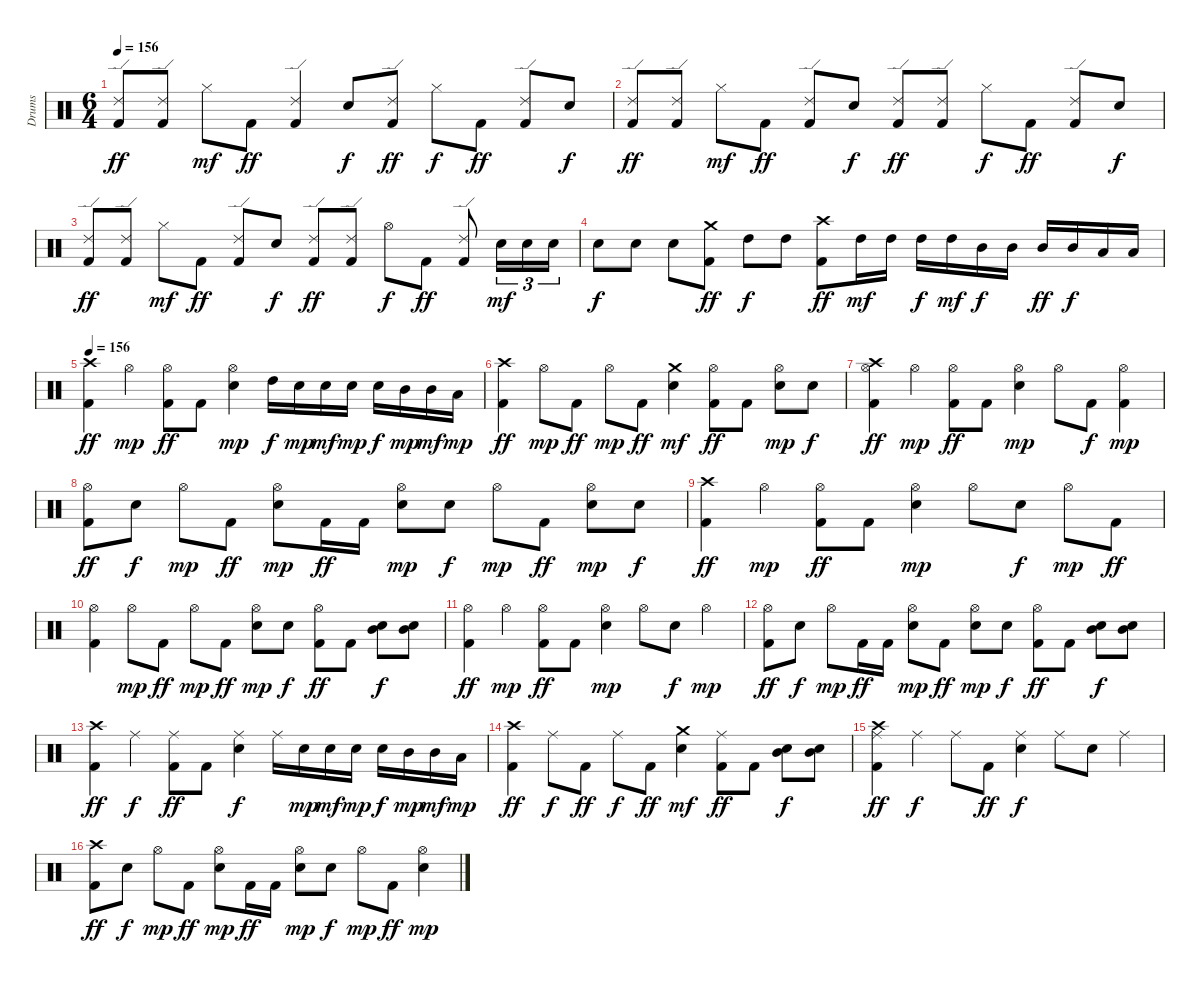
\track ("Drums" "Drums") {instrument percussion}
\staff {score}
\articulation defaults
\ts (6 4)
\tempo 156
\clef neutral
\ks c
("Ride (edge) 2" "Kick (hit) 2").8{dy ff} ("Ride (edge) 2" "Kick (hit) 2").8 "Hi-Hat (closed)".8{dy mf} "Kick (hit) 2".8{dy ff} ("Ride (edge) 2" "Kick (hit) 2").4 "Electric Snare (hit)".8{dy f} ("Ride (edge) 2" "Kick (hit) 2").8{dy ff} "Hi-Hat (closed)".8{dy f} "Kick (hit) 2".8{dy ff} ("Ride (edge) 2" "Kick (hit) 2").8 "Electric Snare (hit)".8{dy f} |
("Ride (edge) 2" "Kick (hit) 2").8{dy ff} ("Ride (edge) 2" "Kick (hit) 2").8 "Hi-Hat (closed)".8{dy mf} "Kick (hit) 2".8{dy ff} ("Ride (edge) 2" "Kick (hit) 2").8 "Electric Snare (hit)".8{dy f} ("Ride (edge) 2" "Kick (hit) 2").8{dy ff} ("Ride (edge) 2" "Kick (hit) 2").8 "Hi-Hat (closed)".8{dy f} "Kick (hit) 2".8{dy ff} ("Ride (edge) 2" "Kick (hit) 2").8 "Electric Snare (hit)".8{dy f} |
("Ride (edge) 2" "Kick (hit) 2").8{dy ff} ("Ride (edge) 2" "Kick (hit) 2").8 "Hi-Hat (closed)".8{dy mf} "Kick (hit) 2".8{dy ff} ("Ride (edge) 2" "Kick (hit) 2").8 "Electric Snare (hit)".8{dy f} ("Ride (edge) 2" "Kick (hit) 2").8{dy ff} ("Ride (edge) 2" "Kick (hit) 2").8 "Hi-Hat (open)".8{dy f} "Kick (hit) 2".8{dy ff} ("Ride (edge) 2" "Kick (hit) 2").8 "Electric Snare (hit)".16{tu (3 2) dy mf} "Electric Snare (hit)".16{tu (3 2)} "Electric Snare (hit)".16{tu (3 2)} |
"Electric Snare (hit)".8{dy f} "Electric Snare (hit)".8 "Electric Snare (hit)".8 ("Crash medium (hit)" "Kick (hit) 2").8{dy ff} "High Tom (hit)".8{dy f} "High Tom (hit)".8 ("Crash high (hit)" "Kick (hit) 2").8{dy ff} "High Tom (hit)".16{dy mf} "High Tom (hit)".16 "High Tom (hit)".16{dy f} "High Tom (hit)".16{dy mf} "Mid Tom (hit)".16{dy f} "Mid Tom (hit)".16 "Mid Tom (hit)".16{dy ff} "Mid Tom (hit)".16{dy f} "Low Tom (hit)".16 "Low Tom (hit)".16 |
\tempo 156
("Crash high (hit)" "Kick (hit) 2").4{dy ff} "Hi-Hat (open)".4{dy mp} ("Hi-Hat (open)" "Kick (hit) 2").8{dy ff} "Kick (hit) 2".8 ("Hi-Hat (open)" "Electric Snare (hit)").4{dy mp} "High Tom (hit)".16{dy f} "Electric Snare (hit)".16{dy mp} "Electric Snare (hit)".16{dy mf} "Electric Snare (hit)".16{dy mp} "Electric Snare (hit)".16{dy f} "Mid Tom (hit)".16{dy mp} "Mid Tom (hit)".16{dy mf} "Low Tom (hit)".16{dy mp} |
("Crash high (hit)" "Kick (hit) 2").4{dy ff} "Hi-Hat (open)".8{dy mp} "Kick (hit) 2".8{dy ff} "Hi-Hat (open)".8{dy mp} "Kick (hit) 2".8{dy ff} ("Crash medium (hit)" "Electric Snare (hit)").4{dy mf} ("Hi-Hat (open)" "Kick (hit) 2").8{dy ff} "Kick (hit) 2".8 ("Hi-Hat (open)" "Electric Snare (hit)").8{dy mp} "Electric Snare (hit)".8{dy f} |
("Crash high (hit)" "Hi-Hat (open)" "Kick (hit) 2").4{dy ff} "Hi-Hat (open)".4{dy mp} ("Hi-Hat (open)" "Kick (hit) 2").8{dy ff} "Kick (hit) 2".8 ("Hi-Hat (open)" "Electric Snare (hit)").4{dy mp} "Hi-Hat (open)".8 "Kick (hit) 2".8{dy f} ("Hi-Hat (open)" "Kick (hit) 2").4{dy mp} |
("Hi-Hat (open)" "Kick (hit) 2").8{dy ff} "Electric Snare (hit)".8{dy f} "Hi-Hat (open)".8{dy mp} "Kick (hit) 2".8{dy ff} ("Hi-Hat (open)" "Electric Snare (hit)").8{dy mp} "Kick (hit) 2".16{dy ff} "Kick (hit) 2".16 ("Hi-Hat (open)" "Electric Snare (hit)").8{dy mp} "Electric Snare (hit)".8{dy f} "Hi-Hat (open)".8{dy mp} "Kick (hit) 2".8{dy ff} ("Hi-Hat (open)" "Electric Snare (hit)").8{dy mp} "Electric Snare (hit)".8{dy f} |
("Crash high (hit)" "Kick (hit) 2").4{dy ff} "Hi-Hat (open)".4{dy mp} ("Hi-Hat (open)" "Kick (hit) 2").8{dy ff} "Kick (hit) 2".8 ("Hi-Hat (open)" "Electric Snare (hit)").4{dy mp} "Hi-Hat (open)".8 "Electric Snare (hit)".8{dy f} "Hi-Hat (open)".8{dy mp} "Kick (hit) 2".8{dy ff} |
("Hi-Hat (open)" "Kick (hit) 2").4 "Hi-Hat (open)".8{dy mp} "Kick (hit) 2".8{dy ff} "Hi-Hat (open)".8{dy mp} "Kick (hit) 2".8{dy ff} ("Hi-Hat (open)" "Electric Snare (hit)").8{dy mp} "Electric Snare (hit)".8{dy f} ("Hi-Hat (open)" "Kick (hit) 2").8{dy ff} "Kick (hit) 2".8 ("Electric Snare (hit)" "Mid Tom (hit)").8{dy f} ("Electric Snare (hit)" "Mid Tom (hit)").8 |
("Hi-Hat (open)" "Kick (hit) 2").4{dy ff} "Hi-Hat (open)".4{dy mp} ("Hi-Hat (open)" "Kick (hit) 2").8{dy ff} "Kick (hit) 2".8 ("Hi-Hat (open)" "Electric Snare (hit)").4{dy mp} "Hi-Hat (open)".8 "Electric Snare (hit)".8{dy f} "Hi-Hat (open)".4{dy mp} |
("Hi-Hat (open)" "Kick (hit) 2").8{dy ff} "Electric Snare (hit)".8{dy f} "Hi-Hat (open)".8{dy mp} "Kick (hit) 2".16{dy ff} "Kick (hit) 2".16 ("Hi-Hat (open)" "Electric Snare (hit)").8{dy mp} "Kick (hit) 2".8{dy ff} ("Hi-Hat (open)" "Electric Snare (hit)").8{dy mp} "Electric Snare (hit)".8{dy f} ("Hi-Hat (open)" "Kick (hit) 2").8{dy ff} "Kick (hit) 2".8 ("Electric Snare (hit)" "Mid Tom (hit)").8{dy f} ("Electric Snare (hit)" "Mid Tom (hit)").8 |
("Crash high (hit)" "Kick (hit) 2").4{dy ff} "Ride (middle)".4{dy f} ("Ride (middle)" "Kick (hit) 2").8{dy ff} "Kick (hit) 2".8 ("Ride (middle)" "Electric Snare (hit)").4{dy f} "Ride (middle)".16 "Electric Snare (hit)".16{dy mp} "Electric Snare (hit)".16{dy mf} "Electric Snare (hit)".16{dy mp} "Electric Snare (hit)".16{dy f} "Mid Tom (hit)".16{dy mp} "Mid Tom (hit)".16{dy mf} "Low Tom (hit)".16{dy mp} |
("Crash high (hit)" "Kick (hit) 2").4{dy ff} "Ride (middle)".8{dy f} "Kick (hit) 2".8{dy ff} "Ride (middle)".8{dy f} "Kick (hit) 2".8{dy ff} ("Crash medium (hit)" "Electric Snare (hit)").4{dy mf} ("Ride (middle)" "Kick (hit) 2").8{dy ff} "Kick (hit) 2".8 ("Electric Snare (hit)" "Mid Tom (hit)").8{dy f} ("Electric Snare (hit)" "Mid Tom (hit)").8 |
("Crash high (hit)" "Ride (middle)" "Kick (hit) 2").4{dy ff} "Ride (middle)".4{dy f} "Ride (middle)".8 "Kick (hit) 2".8{dy ff} ("Ride (middle)" "Electric Snare (hit)").4{dy f} "Ride (middle)".8 "Electric Snare (hit)".8 "Ride (middle)".4 |
("Crash high (hit)" "Kick (hit) 2").8{dy ff} "Electric Snare (hit)".8{dy f} "Hi-Hat (open)".8{dy mp} "Kick (hit) 2".8{dy ff} ("Hi-Hat (open)" "Electric Snare (hit)").8{dy mp} "Kick (hit) 2".16{dy ff} "Kick (hit) 2".16 ("Hi-Hat (open)" "Electric Snare (hit)").8{dy mp} "Electric Snare (hit)".8{dy f} "Hi-Hat (open)".8{dy mp} "Kick (hit) 2".8{dy ff} ("Hi-Hat (open)" "Electric Snare (hit)").4{dy mp}
